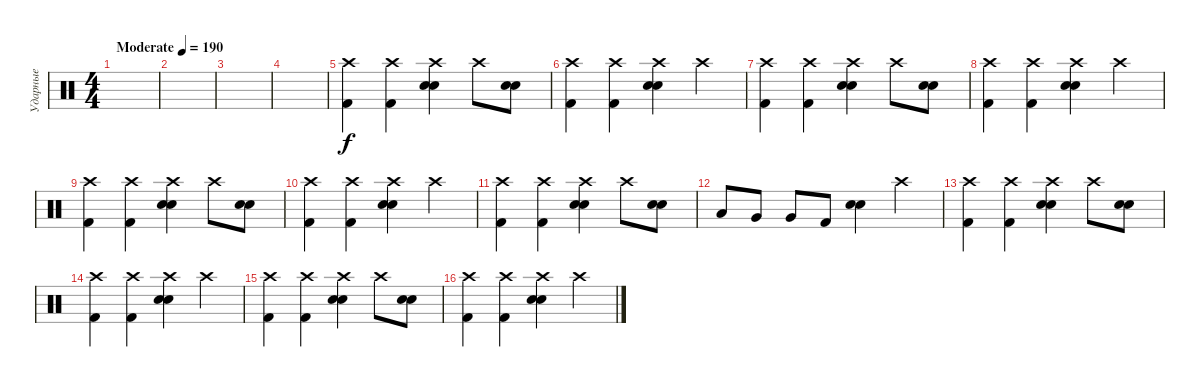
\track ("Ударные" "Ударные") {instrument percussion}
\staff {score}
\articulation defaults
\ts (4 4)
\tempo (190 "Moderate")
\clef neutral
\ks c
|
|
|
|
("Crash high (hit)" "Kick (hit) 2").4 ("Crash high (hit)" "Kick (hit) 2").4 ("Crash high (hit)" "Electric Snare (hit)" "Snare (hit) 2").4 "Crash high (hit)".8 ("Electric Snare (hit)" "Snare (hit) 2").8 |
("Crash high (hit)" "Kick (hit) 2").4 ("Crash high (hit)" "Kick (hit) 2").4 ("Crash high (hit)" "Electric Snare (hit)" "Snare (hit) 2").4 "Crash high (hit)".4 |
("Crash high (hit)" "Kick (hit) 2").4 ("Crash high (hit)" "Kick (hit) 2").4 ("Crash high (hit)" "Electric Snare (hit)" "Snare (hit) 2").4 "Crash high (hit)".8 ("Electric Snare (hit)" "Snare (hit) 2").8 |
("Crash high (hit)" "Kick (hit) 2").4 ("Crash high (hit)" "Kick (hit) 2").4 ("Crash high (hit)" "Electric Snare (hit)" "Snare (hit) 2").4 "Crash high (hit)".4 |
("Crash high (hit)" "Kick (hit) 2").4 ("Crash high (hit)" "Kick (hit) 2").4 ("Crash high (hit)" "Electric Snare (hit)" "Snare (hit) 2").4 "Crash high (hit)".8 ("Electric Snare (hit)" "Snare (hit) 2").8 |
("Crash high (hit)" "Kick (hit) 2").4 ("Crash high (hit)" "Kick (hit) 2").4 ("Crash high (hit)" "Electric Snare (hit)" "Snare (hit) 2").4 "Crash high (hit)".4 |
("Crash high (hit)" "Kick (hit) 2").4 ("Crash high (hit)" "Kick (hit) 2").4 ("Crash high (hit)" "Electric Snare (hit)" "Snare (hit) 2").4 "Crash high (hit)".8 ("Electric Snare (hit)" "Snare (hit) 2").8 |
"Low Tom (hit)".8 "Very Low Tom (hit)".8 "Very Low Tom (hit)".8 "Kick (hit) 2".8 ("Electric Snare (hit)" "Snare (hit) 2").4 "Crash high (hit)".4 |
("Crash high (hit)" "Kick (hit) 2").4 ("Crash high (hit)" "Kick (hit) 2").4 ("Crash high (hit)" "Electric Snare (hit)" "Snare (hit) 2").4 "Crash high (hit)".8 ("Electric Snare (hit)" "Snare (hit) 2").8 |
("Crash high (hit)" "Kick (hit) 2").4 ("Crash high (hit)" "Kick (hit) 2").4 ("Crash high (hit)" "Electric Snare (hit)" "Snare (hit) 2").4 "Crash high (hit)".4 |
("Crash high (hit)" "Kick (hit) 2").4 ("Crash high (hit)" "Kick (hit) 2").4 ("Crash high (hit)" "Electric Snare (hit)" "Snare (hit) 2").4 "Crash high (hit)".8 ("Electric Snare (hit)" "Snare (hit) 2").8 |
("Crash high (hit)" "Kick (hit) 2").4 ("Crash high (hit)" "Kick (hit) 2").4 ("Crash high (hit)" "Electric Snare (hit)" "Snare (hit) 2").4 "Crash high (hit)".4
